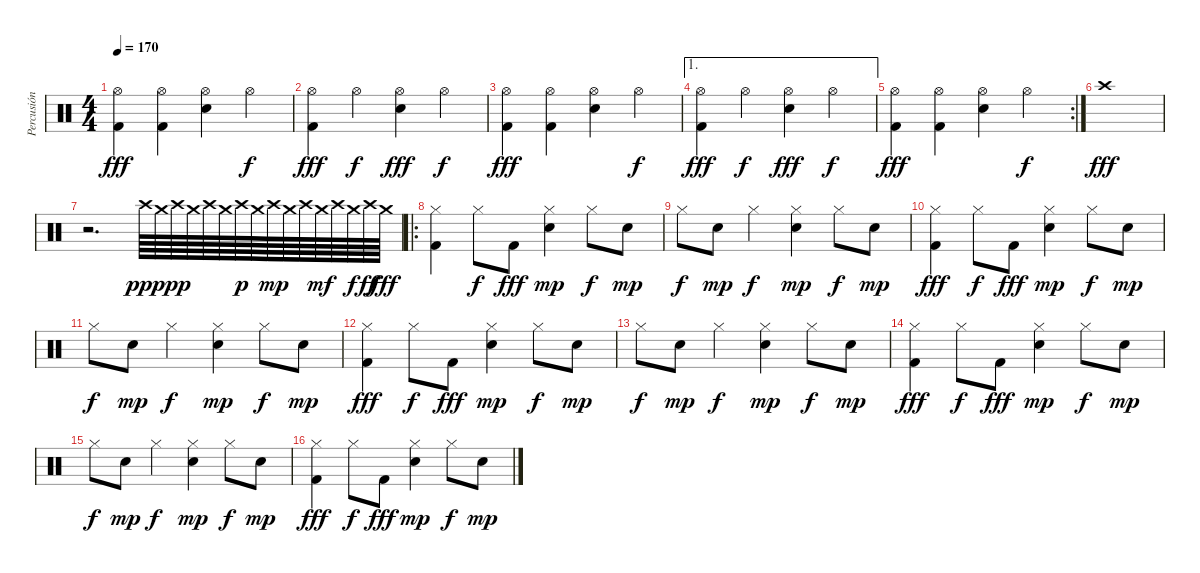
\track ("Percusión" "Percusión") {instrument percussion}
\staff {score}
\articulation defaults
\ts (4 4)
\tempo 170
\clef neutral
\ks c
("Hi-Hat (open)" "Kick (hit) 2").4{dy fff} ("Hi-Hat (open)" "Kick (hit) 2").4 ("Hi-Hat (open)" "Electric Snare (hit)").4 "Hi-Hat (open)".4{dy f} |
("Hi-Hat (open)" "Kick (hit) 2").4{dy fff} "Hi-Hat (open)".4{dy f} ("Hi-Hat (open)" "Electric Snare (hit)").4{dy fff} "Hi-Hat (open)".4{dy f} |
("Hi-Hat (open)" "Kick (hit) 2").4{dy fff} ("Hi-Hat (open)" "Kick (hit) 2").4 ("Hi-Hat (open)" "Electric Snare (hit)").4 "Hi-Hat (open)".4{dy f} |
\ae 1
("Hi-Hat (open)" "Kick (hit) 2").4{dy fff} "Hi-Hat (open)".4{dy f} ("Hi-Hat (open)" "Electric Snare (hit)").4{dy fff} "Hi-Hat (open)".4{dy f} |
\rc 2
("Hi-Hat (open)" "Kick (hit) 2").4{dy fff} ("Hi-Hat (open)" "Kick (hit) 2").4 ("Hi-Hat (open)" "Electric Snare (hit)").4 "Hi-Hat (open)".4{dy f} |
"Crash high (hit)".1{dy fff} |
r.2{d} "Crash high (hit)".64{dy ppp} "Crash medium (hit)".64 "Crash high (hit)".64{dy pp} "Crash medium (hit)".64 "Crash high (hit)".64 "Crash medium (hit)".64 "Crash high (hit)".64{dy p} "Crash medium (hit)".64 "Crash high (hit)".64{dy mp} "Crash medium (hit)".64 "Crash high (hit)".64 "Crash medium (hit)".64{dy mf} "Crash high (hit)".64 "Crash medium (hit)".64{dy f} "Crash high (hit)".64{dy ff} "Crash medium (hit)".64{dy fff} |
\ro
("Hi-Hat (closed)" "Kick (hit) 2").4 "Hi-Hat (closed)".8{dy f} "Kick (hit) 2".8{dy fff} ("Hi-Hat (closed)" "Electric Snare (hit)").4{dy mp} "Hi-Hat (closed)".8{dy f} "Electric Snare (hit)".8{dy mp} |
"Hi-Hat (closed)".8{dy f} "Electric Snare (hit)".8{dy mp} "Hi-Hat (closed)".4{dy f} ("Hi-Hat (closed)" "Electric Snare (hit)").4{dy mp} "Hi-Hat (closed)".8{dy f} "Electric Snare (hit)".8{dy mp} |
("Hi-Hat (closed)" "Kick (hit) 2").4{dy fff} "Hi-Hat (closed)".8{dy f} "Kick (hit) 2".8{dy fff} ("Hi-Hat (closed)" "Electric Snare (hit)").4{dy mp} "Hi-Hat (closed)".8{dy f} "Electric Snare (hit)".8{dy mp} |
"Hi-Hat (closed)".8{dy f} "Electric Snare (hit)".8{dy mp} "Hi-Hat (closed)".4{dy f} ("Hi-Hat (closed)" "Electric Snare (hit)").4{dy mp} "Hi-Hat (closed)".8{dy f} "Electric Snare (hit)".8{dy mp} |
("Hi-Hat (closed)" "Kick (hit) 2").4{dy fff} "Hi-Hat (closed)".8{dy f} "Kick (hit) 2".8{dy fff} ("Hi-Hat (closed)" "Electric Snare (hit)").4{dy mp} "Hi-Hat (closed)".8{dy f} "Electric Snare (hit)".8{dy mp} |
"Hi-Hat (closed)".8{dy f} "Electric Snare (hit)".8{dy mp} "Hi-Hat (closed)".4{dy f} ("Hi-Hat (closed)" "Electric Snare (hit)").4{dy mp} "Hi-Hat (closed)".8{dy f} "Electric Snare (hit)".8{dy mp} |
("Hi-Hat (closed)" "Kick (hit) 2").4{dy fff} "Hi-Hat (closed)".8{dy f} "Kick (hit) 2".8{dy fff} ("Hi-Hat (closed)" "Electric Snare (hit)").4{dy mp} "Hi-Hat (closed)".8{dy f} "Electric Snare (hit)".8{dy mp} |
"Hi-Hat (closed)".8{dy f} "Electric Snare (hit)".8{dy mp} "Hi-Hat (closed)".4{dy f} ("Hi-Hat (closed)" "Electric Snare (hit)").4{dy mp} "Hi-Hat (closed)".8{dy f} "Electric Snare (hit)".8{dy mp} |
("Hi-Hat (closed)" "Kick (hit) 2").4{dy fff} "Hi-Hat (closed)".8{dy f} "Kick (hit) 2".8{dy fff} ("Hi-Hat (closed)" "Electric Snare (hit)").4{dy mp} "Hi-Hat (closed)".8{dy f} "Electric Snare (hit)".8{dy mp}
